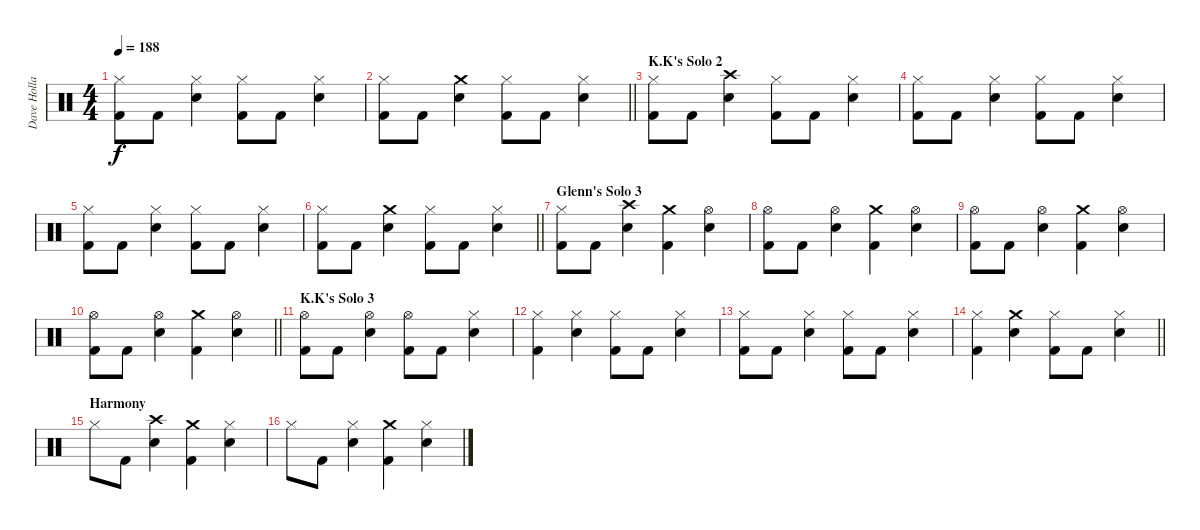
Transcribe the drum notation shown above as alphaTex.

\track ("Dave Holland" "Dave Holla") {instrument percussion}
\staff {score}
\articulation defaults
\ts (4 4)
\tempo 188
\clef neutral
\ks c
("Kick (hit) 2" "Hi-Hat (closed)").8{dy f} "Kick (hit) 2".8 ("Snare (hit) 2" "Hi-Hat (closed)").4 ("Kick (hit) 2" "Hi-Hat (closed)").8 "Kick (hit) 2".8 ("Snare (hit) 2" "Hi-Hat (closed)").4 |
\barLineRight lightlight
("Kick (hit) 2" "Hi-Hat (closed)").8 "Kick (hit) 2".8 ("Snare (hit) 2" "Crash medium (hit)").4 ("Kick (hit) 2" "Hi-Hat (closed)").8 "Kick (hit) 2".8 ("Snare (hit) 2" "Hi-Hat (closed)").4 |
\section ("" "K.K's Solo 2")
("Kick (hit) 2" "Hi-Hat (closed)").8 "Kick (hit) 2".8 ("Snare (hit) 2" "Crash high (hit)").4 ("Kick (hit) 2" "Hi-Hat (closed)").8 "Kick (hit) 2".8 ("Snare (hit) 2" "Hi-Hat (closed)").4 |
("Kick (hit) 2" "Hi-Hat (closed)").8 "Kick (hit) 2".8 ("Snare (hit) 2" "Hi-Hat (closed)").4 ("Kick (hit) 2" "Hi-Hat (closed)").8 "Kick (hit) 2".8 ("Snare (hit) 2" "Hi-Hat (closed)").4 |
("Kick (hit) 2" "Hi-Hat (closed)").8 "Kick (hit) 2".8 ("Snare (hit) 2" "Hi-Hat (closed)").4 ("Kick (hit) 2" "Hi-Hat (closed)").8 "Kick (hit) 2".8 ("Snare (hit) 2" "Hi-Hat (closed)").4 |
\barLineRight lightlight
("Kick (hit) 2" "Hi-Hat (closed)").8 "Kick (hit) 2".8 ("Snare (hit) 2" "Crash medium (hit)").4 ("Kick (hit) 2" "Hi-Hat (closed)").8 "Kick (hit) 2".8 ("Snare (hit) 2" "Hi-Hat (closed)").4 |
\section ("" "Glenn's Solo 3")
("Kick (hit) 2" "Hi-Hat (closed)").8 "Kick (hit) 2".8 ("Snare (hit) 2" "Crash high (hit)").4 ("Kick (hit) 2" "Crash medium (hit)").4 ("Snare (hit) 2" "Hi-Hat (open)").4 |
("Kick (hit) 2" "Hi-Hat (open)").8 "Kick (hit) 2".8 ("Snare (hit) 2" "Hi-Hat (open)").4 ("Kick (hit) 2" "Crash medium (hit)").4 ("Snare (hit) 2" "Hi-Hat (open)").4 |
("Kick (hit) 2" "Hi-Hat (open)").8 "Kick (hit) 2".8 ("Snare (hit) 2" "Hi-Hat (open)").4 ("Kick (hit) 2" "Crash medium (hit)").4 ("Snare (hit) 2" "Hi-Hat (open)").4 |
\barLineRight lightlight
("Kick (hit) 2" "Hi-Hat (open)").8 "Kick (hit) 2".8 ("Snare (hit) 2" "Hi-Hat (open)").4 ("Kick (hit) 2" "Crash medium (hit)").4 ("Snare (hit) 2" "Hi-Hat (open)").4 |
\section ("" "K.K's Solo 3")
("Kick (hit) 2" "Hi-Hat (open)").8 "Kick (hit) 2".8 ("Snare (hit) 2" "Hi-Hat (open)").4 ("Kick (hit) 2" "Hi-Hat (open)").8 "Kick (hit) 2".8 ("Snare (hit) 2" "Hi-Hat (closed)").4 |
("Kick (hit) 2" "Hi-Hat (closed)").4 ("Snare (hit) 2" "Hi-Hat (closed)").4 ("Kick (hit) 2" "Hi-Hat (closed)").8 "Kick (hit) 2".8 ("Snare (hit) 2" "Hi-Hat (closed)").4 |
("Kick (hit) 2" "Hi-Hat (closed)").8 "Kick (hit) 2".8 ("Snare (hit) 2" "Hi-Hat (closed)").4 ("Kick (hit) 2" "Hi-Hat (closed)").8 "Kick (hit) 2".8 ("Snare (hit) 2" "Hi-Hat (closed)").4 |
\barLineRight lightlight
("Kick (hit) 2" "Hi-Hat (closed)").4 ("Snare (hit) 2" "Crash medium (hit)").4 ("Kick (hit) 2" "Hi-Hat (closed)").8 "Kick (hit) 2".8 ("Snare (hit) 2" "Hi-Hat (closed)").4 |
\section ("" "Harmony")
"Hi-Hat (closed)".8 "Kick (hit) 2".8 ("Snare (hit) 2" "Crash high (hit)").4 ("Kick (hit) 2" "Crash medium (hit)").4 ("Snare (hit) 2" "Hi-Hat (closed)").4 |
"Hi-Hat (closed)".8 "Kick (hit) 2".8 ("Snare (hit) 2" "Hi-Hat (closed)").4 ("Kick (hit) 2" "Crash medium (hit)").4 ("Snare (hit) 2" "Hi-Hat (closed)").4
